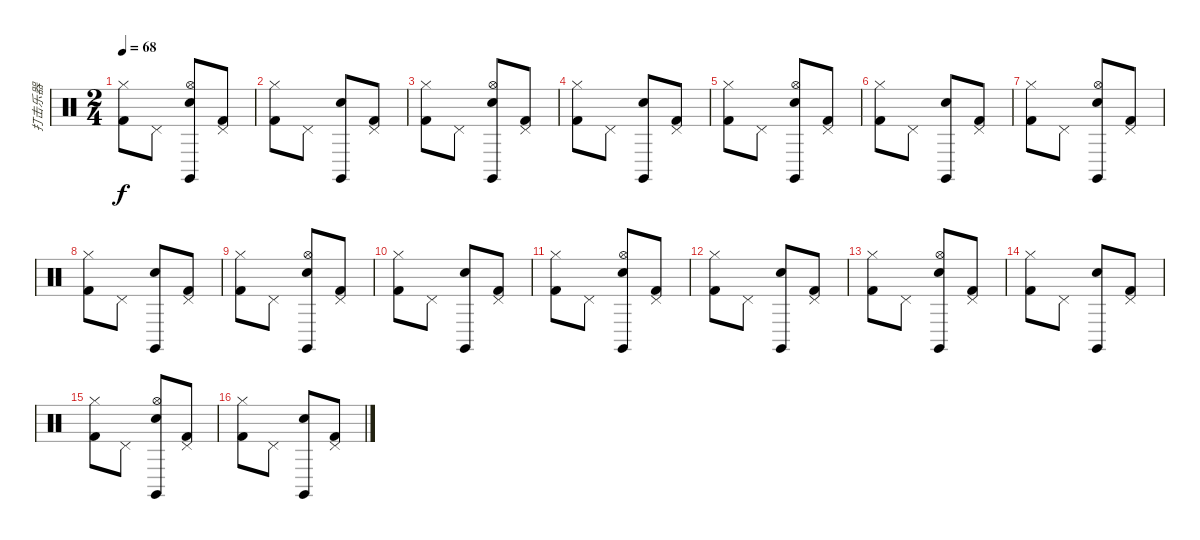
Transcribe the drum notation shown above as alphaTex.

\track ("打击乐器" "打击乐器") {instrument percussion}
\staff {score}
\articulation defaults
\ts (2 4)
\tempo 68
\clef neutral
\ks c
("Kick (hit) 2" "Hi-Hat (closed)").8{dy f} "Pedal Hi-Hat (hit)".8 ("Claves (hit)" "Hi-Hat (open)" "Electric Snare (hit)").8 ("Kick (hit) 2" "Pedal Hi-Hat (hit)").8 |
("Kick (hit) 2" "Hi-Hat (closed)").8 "Pedal Hi-Hat (hit)".8 ("Claves (hit)" "Electric Snare (hit)").8 ("Kick (hit) 2" "Pedal Hi-Hat (hit)").8 |
("Kick (hit) 2" "Hi-Hat (closed)").8 "Pedal Hi-Hat (hit)".8 ("Claves (hit)" "Hi-Hat (open)" "Electric Snare (hit)").8 ("Kick (hit) 2" "Pedal Hi-Hat (hit)").8 |
("Kick (hit) 2" "Hi-Hat (closed)").8 "Pedal Hi-Hat (hit)".8 ("Claves (hit)" "Electric Snare (hit)").8 ("Kick (hit) 2" "Pedal Hi-Hat (hit)").8 |
("Kick (hit) 2" "Hi-Hat (closed)").8 "Pedal Hi-Hat (hit)".8 ("Claves (hit)" "Hi-Hat (open)" "Electric Snare (hit)").8 ("Kick (hit) 2" "Pedal Hi-Hat (hit)").8 |
("Kick (hit) 2" "Hi-Hat (closed)").8 "Pedal Hi-Hat (hit)".8 ("Claves (hit)" "Electric Snare (hit)").8 ("Kick (hit) 2" "Pedal Hi-Hat (hit)").8 |
("Kick (hit) 2" "Hi-Hat (closed)").8 "Pedal Hi-Hat (hit)".8 ("Claves (hit)" "Hi-Hat (open)" "Electric Snare (hit)").8 ("Kick (hit) 2" "Pedal Hi-Hat (hit)").8 |
("Kick (hit) 2" "Hi-Hat (closed)").8 "Pedal Hi-Hat (hit)".8 ("Claves (hit)" "Electric Snare (hit)").8 ("Kick (hit) 2" "Pedal Hi-Hat (hit)").8 |
("Kick (hit) 2" "Hi-Hat (closed)").8 "Pedal Hi-Hat (hit)".8 ("Claves (hit)" "Hi-Hat (open)" "Electric Snare (hit)").8 ("Kick (hit) 2" "Pedal Hi-Hat (hit)").8 |
("Kick (hit) 2" "Hi-Hat (closed)").8 "Pedal Hi-Hat (hit)".8 ("Claves (hit)" "Electric Snare (hit)").8 ("Kick (hit) 2" "Pedal Hi-Hat (hit)").8 |
("Kick (hit) 2" "Hi-Hat (closed)").8 "Pedal Hi-Hat (hit)".8 ("Claves (hit)" "Hi-Hat (open)" "Electric Snare (hit)").8 ("Kick (hit) 2" "Pedal Hi-Hat (hit)").8 |
("Kick (hit) 2" "Hi-Hat (closed)").8 "Pedal Hi-Hat (hit)".8 ("Claves (hit)" "Electric Snare (hit)").8 ("Kick (hit) 2" "Pedal Hi-Hat (hit)").8 |
("Kick (hit) 2" "Hi-Hat (closed)").8 "Pedal Hi-Hat (hit)".8 ("Claves (hit)" "Hi-Hat (open)" "Electric Snare (hit)").8 ("Kick (hit) 2" "Pedal Hi-Hat (hit)").8 |
("Kick (hit) 2" "Hi-Hat (closed)").8 "Pedal Hi-Hat (hit)".8 ("Claves (hit)" "Electric Snare (hit)").8 ("Kick (hit) 2" "Pedal Hi-Hat (hit)").8 |
("Kick (hit) 2" "Hi-Hat (closed)").8 "Pedal Hi-Hat (hit)".8 ("Claves (hit)" "Hi-Hat (open)" "Electric Snare (hit)").8 ("Kick (hit) 2" "Pedal Hi-Hat (hit)").8 |
("Kick (hit) 2" "Hi-Hat (closed)").8 "Pedal Hi-Hat (hit)".8 ("Claves (hit)" "Electric Snare (hit)").8 ("Kick (hit) 2" "Pedal Hi-Hat (hit)").8
